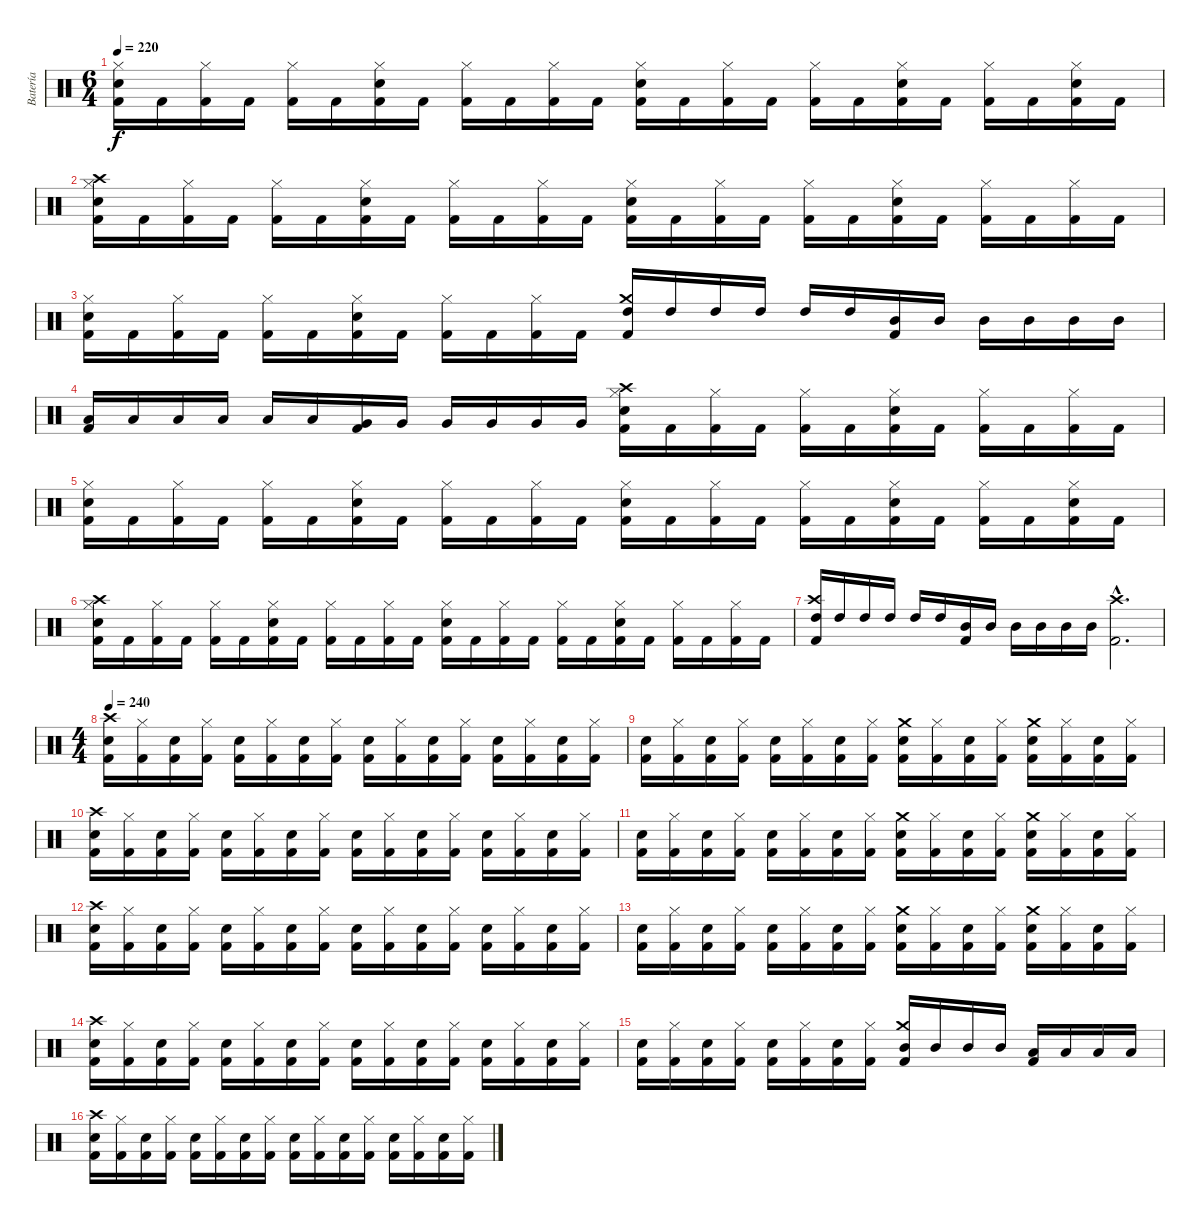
\track ("Batería" "Batería") {instrument percussion}
\staff {score}
\articulation defaults
\ts (6 4)
\tempo 220
\clef neutral
\ks c
("Electric Snare (hit)" "Hi-Hat (closed)" "Kick (hit) 2").16{dy f} "Kick (hit) 2".16 ("Hi-Hat (closed)" "Kick (hit) 2").16 "Kick (hit) 2".16 ("Hi-Hat (closed)" "Kick (hit) 2").16 "Kick (hit) 2".16 ("Electric Snare (hit)" "Hi-Hat (closed)" "Kick (hit) 2").16 "Kick (hit) 2".16 ("Hi-Hat (closed)" "Kick (hit) 2").16 "Kick (hit) 2".16 ("Hi-Hat (closed)" "Kick (hit) 2").16 "Kick (hit) 2".16 ("Electric Snare (hit)" "Hi-Hat (closed)" "Kick (hit) 2").16 "Kick (hit) 2".16 ("Hi-Hat (closed)" "Kick (hit) 2").16 "Kick (hit) 2".16 ("Hi-Hat (closed)" "Kick (hit) 2").16 "Kick (hit) 2".16 ("Electric Snare (hit)" "Hi-Hat (closed)" "Kick (hit) 2").16 "Kick (hit) 2".16 ("Hi-Hat (closed)" "Kick (hit) 2").16 "Kick (hit) 2".16 ("Electric Snare (hit)" "Hi-Hat (closed)" "Kick (hit) 2").16 "Kick (hit) 2".16 |
("Crash high (hit)" "Electric Snare (hit)" "Hi-Hat (closed)" "Kick (hit) 2").16 "Kick (hit) 2".16 ("Hi-Hat (closed)" "Kick (hit) 2").16 "Kick (hit) 2".16 ("Hi-Hat (closed)" "Kick (hit) 2").16 "Kick (hit) 2".16 ("Electric Snare (hit)" "Hi-Hat (closed)" "Kick (hit) 2").16 "Kick (hit) 2".16 ("Hi-Hat (closed)" "Kick (hit) 2").16 "Kick (hit) 2".16 ("Hi-Hat (closed)" "Kick (hit) 2").16 "Kick (hit) 2".16 ("Electric Snare (hit)" "Hi-Hat (closed)" "Kick (hit) 2").16 "Kick (hit) 2".16 ("Hi-Hat (closed)" "Kick (hit) 2").16 "Kick (hit) 2".16 ("Hi-Hat (closed)" "Kick (hit) 2").16 "Kick (hit) 2".16 ("Electric Snare (hit)" "Hi-Hat (closed)" "Kick (hit) 2").16 "Kick (hit) 2".16 ("Hi-Hat (closed)" "Kick (hit) 2").16 "Kick (hit) 2".16 ("Hi-Hat (closed)" "Kick (hit) 2").16 "Kick (hit) 2".16 |
("Electric Snare (hit)" "Hi-Hat (closed)" "Kick (hit) 2").16 "Kick (hit) 2".16 ("Hi-Hat (closed)" "Kick (hit) 2").16 "Kick (hit) 2".16 ("Hi-Hat (closed)" "Kick (hit) 2").16 "Kick (hit) 2".16 ("Electric Snare (hit)" "Hi-Hat (closed)" "Kick (hit) 2").16 "Kick (hit) 2".16 ("Hi-Hat (closed)" "Kick (hit) 2").16 "Kick (hit) 2".16 ("Hi-Hat (closed)" "Kick (hit) 2").16 "Kick (hit) 2".16 ("Crash medium (hit)" "Kick (hit) 2" "High Tom (hit)").16 "High Tom (hit)".16 "High Tom (hit)".16 "High Tom (hit)".16 "High Tom (hit)".16 "High Tom (hit)".16 ("Kick (hit) 2" "Mid Tom (hit)").16 "Mid Tom (hit)".16 "Mid Tom (hit)".16 "Mid Tom (hit)".16 "Mid Tom (hit)".16 "Mid Tom (hit)".16 |
("Kick (hit) 2" "Low Tom (hit)").16 "Low Tom (hit)".16 "Low Tom (hit)".16 "Low Tom (hit)".16 "Low Tom (hit)".16 "Low Tom (hit)".16 ("Kick (hit) 2" "Very Low Tom (hit)").16 "Very Low Tom (hit)".16 "Very Low Tom (hit)".16 "Very Low Tom (hit)".16 "Very Low Tom (hit)".16 "Very Low Tom (hit)".16 ("Crash high (hit)" "Electric Snare (hit)" "Hi-Hat (closed)" "Kick (hit) 2").16 "Kick (hit) 2".16 ("Hi-Hat (closed)" "Kick (hit) 2").16 "Kick (hit) 2".16 ("Hi-Hat (closed)" "Kick (hit) 2").16 "Kick (hit) 2".16 ("Electric Snare (hit)" "Hi-Hat (closed)" "Kick (hit) 2").16 "Kick (hit) 2".16 ("Hi-Hat (closed)" "Kick (hit) 2").16 "Kick (hit) 2".16 ("Hi-Hat (closed)" "Kick (hit) 2").16 "Kick (hit) 2".16 |
("Electric Snare (hit)" "Hi-Hat (closed)" "Kick (hit) 2").16 "Kick (hit) 2".16 ("Hi-Hat (closed)" "Kick (hit) 2").16 "Kick (hit) 2".16 ("Hi-Hat (closed)" "Kick (hit) 2").16 "Kick (hit) 2".16 ("Electric Snare (hit)" "Hi-Hat (closed)" "Kick (hit) 2").16 "Kick (hit) 2".16 ("Hi-Hat (closed)" "Kick (hit) 2").16 "Kick (hit) 2".16 ("Hi-Hat (closed)" "Kick (hit) 2").16 "Kick (hit) 2".16 ("Electric Snare (hit)" "Hi-Hat (closed)" "Kick (hit) 2").16 "Kick (hit) 2".16 ("Hi-Hat (closed)" "Kick (hit) 2").16 "Kick (hit) 2".16 ("Hi-Hat (closed)" "Kick (hit) 2").16 "Kick (hit) 2".16 ("Electric Snare (hit)" "Hi-Hat (closed)" "Kick (hit) 2").16 "Kick (hit) 2".16 ("Hi-Hat (closed)" "Kick (hit) 2").16 "Kick (hit) 2".16 ("Electric Snare (hit)" "Hi-Hat (closed)" "Kick (hit) 2").16 "Kick (hit) 2".16 |
("Crash high (hit)" "Electric Snare (hit)" "Hi-Hat (closed)" "Kick (hit) 2").16 "Kick (hit) 2".16 ("Hi-Hat (closed)" "Kick (hit) 2").16 "Kick (hit) 2".16 ("Hi-Hat (closed)" "Kick (hit) 2").16 "Kick (hit) 2".16 ("Electric Snare (hit)" "Hi-Hat (closed)" "Kick (hit) 2").16 "Kick (hit) 2".16 ("Hi-Hat (closed)" "Kick (hit) 2").16 "Kick (hit) 2".16 ("Hi-Hat (closed)" "Kick (hit) 2").16 "Kick (hit) 2".16 ("Electric Snare (hit)" "Hi-Hat (closed)" "Kick (hit) 2").16 "Kick (hit) 2".16 ("Hi-Hat (closed)" "Kick (hit) 2").16 "Kick (hit) 2".16 ("Hi-Hat (closed)" "Kick (hit) 2").16 "Kick (hit) 2".16 ("Electric Snare (hit)" "Hi-Hat (closed)" "Kick (hit) 2").16 "Kick (hit) 2".16 ("Hi-Hat (closed)" "Kick (hit) 2").16 "Kick (hit) 2".16 ("Hi-Hat (closed)" "Kick (hit) 2").16 "Kick (hit) 2".16 |
("Crash high (hit)" "Kick (hit) 2" "High Tom (hit)").16 "High Tom (hit)".16 "High Tom (hit)".16 "High Tom (hit)".16 "High Tom (hit)".16 "High Tom (hit)".16 ("Kick (hit) 2" "Mid Tom (hit)").16 "Mid Tom (hit)".16 "Mid Tom (hit)".16 "Mid Tom (hit)".16 "Mid Tom (hit)".16 "Mid Tom (hit)".16 ("Crash high (hit)"{hac} "Kick (hit) 2"{hac}).2{d} |
\ts (4 4)
\tempo 240
("Crash high (hit)" "Kick (hit) 2" "Electric Snare (hit)").16 ("Kick (hit) 2" "Hi-Hat (closed)").16 ("Kick (hit) 2" "Electric Snare (hit)").16 ("Kick (hit) 2" "Hi-Hat (closed)").16 ("Kick (hit) 2" "Electric Snare (hit)").16 ("Kick (hit) 2" "Hi-Hat (closed)").16 ("Kick (hit) 2" "Electric Snare (hit)").16 ("Kick (hit) 2" "Hi-Hat (closed)").16 ("Kick (hit) 2" "Electric Snare (hit)").16 ("Kick (hit) 2" "Hi-Hat (closed)").16 ("Kick (hit) 2" "Electric Snare (hit)").16 ("Kick (hit) 2" "Hi-Hat (closed)").16 ("Kick (hit) 2" "Electric Snare (hit)").16 ("Kick (hit) 2" "Hi-Hat (closed)").16 ("Kick (hit) 2" "Electric Snare (hit)").16 ("Kick (hit) 2" "Hi-Hat (closed)").16 |
("Kick (hit) 2" "Electric Snare (hit)").16 ("Kick (hit) 2" "Hi-Hat (closed)").16 ("Kick (hit) 2" "Electric Snare (hit)").16 ("Kick (hit) 2" "Hi-Hat (closed)").16 ("Kick (hit) 2" "Electric Snare (hit)").16 ("Kick (hit) 2" "Hi-Hat (closed)").16 ("Kick (hit) 2" "Electric Snare (hit)").16 ("Kick (hit) 2" "Hi-Hat (closed)").16 ("Crash medium (hit)" "Kick (hit) 2" "Electric Snare (hit)").16 ("Kick (hit) 2" "Hi-Hat (closed)").16 ("Kick (hit) 2" "Electric Snare (hit)").16 ("Kick (hit) 2" "Hi-Hat (closed)").16 ("Crash medium (hit)" "Kick (hit) 2" "Electric Snare (hit)").16 ("Kick (hit) 2" "Hi-Hat (closed)").16 ("Kick (hit) 2" "Electric Snare (hit)").16 ("Kick (hit) 2" "Hi-Hat (closed)").16 |
("Crash high (hit)" "Kick (hit) 2" "Electric Snare (hit)").16 ("Kick (hit) 2" "Hi-Hat (closed)").16 ("Kick (hit) 2" "Electric Snare (hit)").16 ("Kick (hit) 2" "Hi-Hat (closed)").16 ("Kick (hit) 2" "Electric Snare (hit)").16 ("Kick (hit) 2" "Hi-Hat (closed)").16 ("Kick (hit) 2" "Electric Snare (hit)").16 ("Kick (hit) 2" "Hi-Hat (closed)").16 ("Kick (hit) 2" "Electric Snare (hit)").16 ("Kick (hit) 2" "Hi-Hat (closed)").16 ("Kick (hit) 2" "Electric Snare (hit)").16 ("Kick (hit) 2" "Hi-Hat (closed)").16 ("Kick (hit) 2" "Electric Snare (hit)").16 ("Kick (hit) 2" "Hi-Hat (closed)").16 ("Kick (hit) 2" "Electric Snare (hit)").16 ("Kick (hit) 2" "Hi-Hat (closed)").16 |
("Kick (hit) 2" "Electric Snare (hit)").16 ("Kick (hit) 2" "Hi-Hat (closed)").16 ("Kick (hit) 2" "Electric Snare (hit)").16 ("Kick (hit) 2" "Hi-Hat (closed)").16 ("Kick (hit) 2" "Electric Snare (hit)").16 ("Kick (hit) 2" "Hi-Hat (closed)").16 ("Kick (hit) 2" "Electric Snare (hit)").16 ("Kick (hit) 2" "Hi-Hat (closed)").16 ("Crash medium (hit)" "Kick (hit) 2" "Electric Snare (hit)").16 ("Kick (hit) 2" "Hi-Hat (closed)").16 ("Kick (hit) 2" "Electric Snare (hit)").16 ("Kick (hit) 2" "Hi-Hat (closed)").16 ("Crash medium (hit)" "Kick (hit) 2" "Electric Snare (hit)").16 ("Kick (hit) 2" "Hi-Hat (closed)").16 ("Kick (hit) 2" "Electric Snare (hit)").16 ("Kick (hit) 2" "Hi-Hat (closed)").16 |
("Crash high (hit)" "Kick (hit) 2" "Electric Snare (hit)").16 ("Kick (hit) 2" "Hi-Hat (closed)").16 ("Kick (hit) 2" "Electric Snare (hit)").16 ("Kick (hit) 2" "Hi-Hat (closed)").16 ("Kick (hit) 2" "Electric Snare (hit)").16 ("Kick (hit) 2" "Hi-Hat (closed)").16 ("Kick (hit) 2" "Electric Snare (hit)").16 ("Kick (hit) 2" "Hi-Hat (closed)").16 ("Kick (hit) 2" "Electric Snare (hit)").16 ("Kick (hit) 2" "Hi-Hat (closed)").16 ("Kick (hit) 2" "Electric Snare (hit)").16 ("Kick (hit) 2" "Hi-Hat (closed)").16 ("Kick (hit) 2" "Electric Snare (hit)").16 ("Kick (hit) 2" "Hi-Hat (closed)").16 ("Kick (hit) 2" "Electric Snare (hit)").16 ("Kick (hit) 2" "Hi-Hat (closed)").16 |
("Kick (hit) 2" "Electric Snare (hit)").16 ("Kick (hit) 2" "Hi-Hat (closed)").16 ("Kick (hit) 2" "Electric Snare (hit)").16 ("Kick (hit) 2" "Hi-Hat (closed)").16 ("Kick (hit) 2" "Electric Snare (hit)").16 ("Kick (hit) 2" "Hi-Hat (closed)").16 ("Kick (hit) 2" "Electric Snare (hit)").16 ("Kick (hit) 2" "Hi-Hat (closed)").16 ("Crash medium (hit)" "Kick (hit) 2" "Electric Snare (hit)").16 ("Kick (hit) 2" "Hi-Hat (closed)").16 ("Kick (hit) 2" "Electric Snare (hit)").16 ("Kick (hit) 2" "Hi-Hat (closed)").16 ("Crash medium (hit)" "Kick (hit) 2" "Electric Snare (hit)").16 ("Kick (hit) 2" "Hi-Hat (closed)").16 ("Kick (hit) 2" "Electric Snare (hit)").16 ("Kick (hit) 2" "Hi-Hat (closed)").16 |
("Crash high (hit)" "Kick (hit) 2" "Electric Snare (hit)").16 ("Kick (hit) 2" "Hi-Hat (closed)").16 ("Kick (hit) 2" "Electric Snare (hit)").16 ("Kick (hit) 2" "Hi-Hat (closed)").16 ("Kick (hit) 2" "Electric Snare (hit)").16 ("Kick (hit) 2" "Hi-Hat (closed)").16 ("Kick (hit) 2" "Electric Snare (hit)").16 ("Kick (hit) 2" "Hi-Hat (closed)").16 ("Kick (hit) 2" "Electric Snare (hit)").16 ("Kick (hit) 2" "Hi-Hat (closed)").16 ("Kick (hit) 2" "Electric Snare (hit)").16 ("Kick (hit) 2" "Hi-Hat (closed)").16 ("Kick (hit) 2" "Electric Snare (hit)").16 ("Kick (hit) 2" "Hi-Hat (closed)").16 ("Kick (hit) 2" "Electric Snare (hit)").16 ("Kick (hit) 2" "Hi-Hat (closed)").16 |
("Kick (hit) 2" "Electric Snare (hit)").16 ("Kick (hit) 2" "Hi-Hat (closed)").16 ("Kick (hit) 2" "Electric Snare (hit)").16 ("Kick (hit) 2" "Hi-Hat (closed)").16 ("Kick (hit) 2" "Electric Snare (hit)").16 ("Kick (hit) 2" "Hi-Hat (closed)").16 ("Kick (hit) 2" "Electric Snare (hit)").16 ("Kick (hit) 2" "Hi-Hat (closed)").16 ("Crash medium (hit)" "Kick (hit) 2" "Mid Tom (hit)").16 "Mid Tom (hit)".16 "Mid Tom (hit)".16 "Mid Tom (hit)".16 ("Kick (hit) 2" "Low Tom (hit)").16 "Low Tom (hit)".16 "Low Tom (hit)".16 "Low Tom (hit)".16 |
("Crash high (hit)" "Kick (hit) 2" "Electric Snare (hit)").16 ("Kick (hit) 2" "Hi-Hat (closed)").16 ("Kick (hit) 2" "Electric Snare (hit)").16 ("Kick (hit) 2" "Hi-Hat (closed)").16 ("Kick (hit) 2" "Electric Snare (hit)").16 ("Kick (hit) 2" "Hi-Hat (closed)").16 ("Kick (hit) 2" "Electric Snare (hit)").16 ("Kick (hit) 2" "Hi-Hat (closed)").16 ("Kick (hit) 2" "Electric Snare (hit)").16 ("Kick (hit) 2" "Hi-Hat (closed)").16 ("Kick (hit) 2" "Electric Snare (hit)").16 ("Kick (hit) 2" "Hi-Hat (closed)").16 ("Kick (hit) 2" "Electric Snare (hit)").16 ("Kick (hit) 2" "Hi-Hat (closed)").16 ("Kick (hit) 2" "Electric Snare (hit)").16 ("Kick (hit) 2" "Hi-Hat (closed)").16
